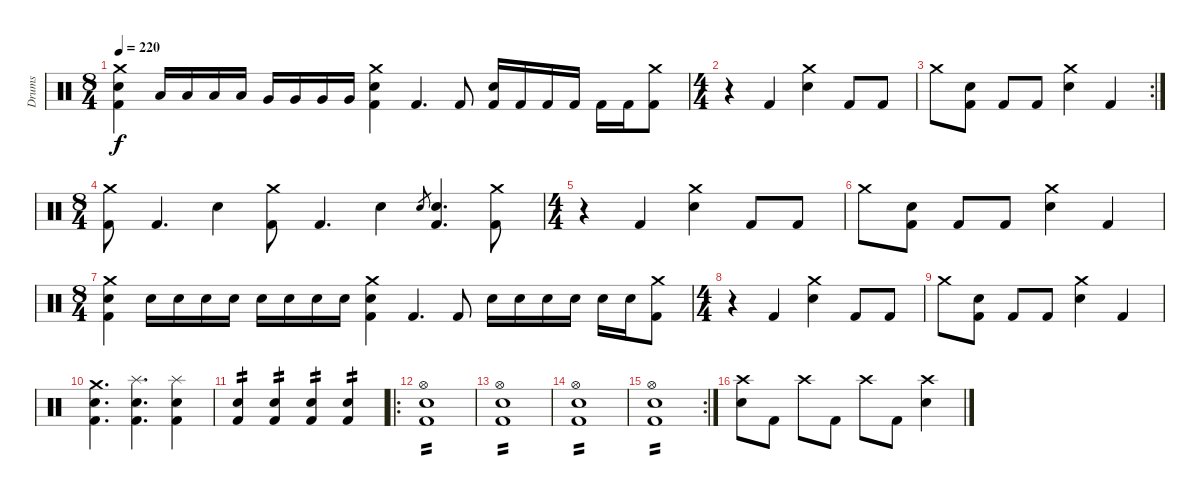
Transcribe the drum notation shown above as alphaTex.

\track ("Drums" "Drums") {instrument percussion}
\staff {score}
\articulation defaults
\ts (8 4)
\tempo 220
\clef neutral
\ks c
("Crash medium (hit)" "Snare (hit) 2" "Kick (hit) 2").4{dy f} "Low Tom (hit)".16 "Low Tom (hit)".16 "Low Tom (hit)".16 "Low Tom (hit)".16 "Very Low Tom (hit)".16 "Very Low Tom (hit)".16 "Very Low Tom (hit)".16 "Very Low Tom (hit)".16 ("Crash medium (hit)" "Snare (hit) 2" "Kick (hit) 2").4 "Kick (hit) 2".4{d} "Kick (hit) 2".8 ("Snare (hit) 2" "Kick (hit) 2").16 "Kick (hit) 2".16 "Kick (hit) 2".16 "Kick (hit) 2".16 "Kick (hit) 2".16 "Kick (hit) 2".16 ("Crash medium (hit)" "Kick (hit) 2").8 |
\ts (4 4)
r.4 "Kick (hit) 2".4 ("Crash medium (hit)" "Snare (hit) 2").4 "Kick (hit) 2".8 "Kick (hit) 2".8 |
\rc 2 "Crash medium (hit)".8
("Snare (hit) 2" "Kick (hit) 2").8 "Kick (hit) 2".8 "Kick (hit) 2".8 ("Crash medium (hit)" "Snare (hit) 2").4 "Kick (hit) 2".4 |
\ts (8 4)
("Crash medium (hit)" "Kick (hit) 2").8 "Kick (hit) 2".4{d} "Snare (hit) 2".4 ("Crash medium (hit)" "Kick (hit) 2").8 "Kick (hit) 2".4{d} "Snare (hit) 2".4 "Snare (hit) 2".8{gr} ("Snare (hit) 2" "Kick (hit) 2").4{d} ("Crash medium (hit)" "Kick (hit) 2").8 |
\ts (4 4)
r.4 "Kick (hit) 2".4 ("Crash medium (hit)" "Snare (hit) 2").4 "Kick (hit) 2".8 "Kick (hit) 2".8 |
"Crash medium (hit)".8 ("Snare (hit) 2" "Kick (hit) 2").8 "Kick (hit) 2".8 "Kick (hit) 2".8 ("Crash medium (hit)" "Snare (hit) 2").4 "Kick (hit) 2".4 |
\ts (8 4)
("Crash medium (hit)" "Snare (hit) 2" "Kick (hit) 2").4 "Snare (hit) 2".16 "Snare (hit) 2".16 "Snare (hit) 2".16 "Snare (hit) 2".16 "Snare (hit) 2".16 "Snare (hit) 2".16 "Snare (hit) 2".16 "Snare (hit) 2".16 ("Crash medium (hit)" "Snare (hit) 2" "Kick (hit) 2").4 "Kick (hit) 2".4{d} "Kick (hit) 2".8 "Snare (hit) 2".16 "Snare (hit) 2".16 "Snare (hit) 2".16 "Snare (hit) 2".16 "Snare (hit) 2".16 "Snare (hit) 2".16 ("Crash medium (hit)" "Kick (hit) 2").8 |
\ts (4 4)
r.4 "Kick (hit) 2".4 ("Crash medium (hit)" "Snare (hit) 2").4 "Kick (hit) 2".8 "Kick (hit) 2".8 |
"Crash medium (hit)".8 ("Snare (hit) 2" "Kick (hit) 2").8 "Kick (hit) 2".8 "Kick (hit) 2".8 ("Crash medium (hit)" "Snare (hit) 2").4 "Kick (hit) 2".4 |
("Crash medium (hit)" "Snare (hit) 2" "Kick (hit) 2").4{d} ("Splash (hit)" "Snare (hit) 2" "Kick (hit) 2").4{d} ("Splash (hit)" "Snare (hit) 2" "Kick (hit) 2").4 |
("Snare (hit) 2" "Kick (hit) 2").4{tp 2} ("Snare (hit) 2" "Kick (hit) 2").4{tp 2} ("Snare (hit) 2" "Kick (hit) 2").4{tp 2} ("Snare (hit) 2" "Kick (hit) 2").4{tp 2} |
\ro
("Hi-Hat (open)" "Snare (hit) 2" "Kick (hit) 2").1{tp 2} |
("Hi-Hat (open)" "Snare (hit) 2" "Kick (hit) 2").1{tp 2} |
("Hi-Hat (open)" "Snare (hit) 2" "Kick (hit) 2").1{tp 2} |
\rc 2
("Hi-Hat (open)" "Snare (hit) 2" "Kick (hit) 2").1{tp 2} |
("Crash high (hit)" "Snare (hit) 2").8 "Kick (hit) 2".8 "Crash high (hit)".8 "Kick (hit) 2".8 "Crash high (hit)".8 "Kick (hit) 2".8 ("Crash high (hit)" "Snare (hit) 2").4
